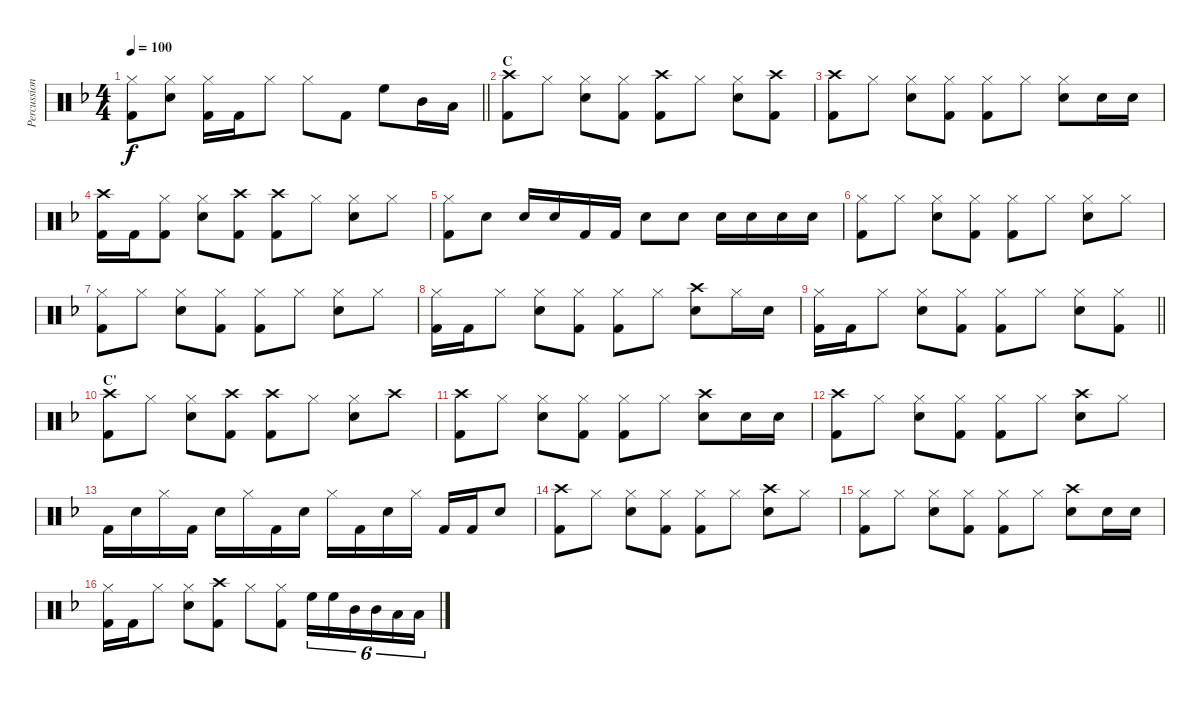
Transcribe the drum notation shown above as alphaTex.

\track ("Percussion" "Percussion") {instrument percussion}
\staff {score}
\articulation defaults
\ts (4 4)
\tempo 100
\clef neutral
\barLineRight lightlight
\ks f
("Hi-Hat (closed)" "Kick (hit) 2").8{dy f} ("Hi-Hat (closed)" "Snare (hit) 2").8 ("Hi-Hat (closed)" "Kick (hit) 2").16 "Kick (hit) 2".16 "Hi-Hat (closed)".8 "Hi-Hat (closed)".8 "Kick (hit) 2".8 "High Floor Tom (hit)".8 "Mid Tom (hit)".16 "Low Tom (hit)".16 |
\section ("" "C")
("Crash high (hit)" "Kick (hit) 2").8 "Hi-Hat (closed)".8 ("Hi-Hat (closed)" "Snare (hit) 2").8 ("Hi-Hat (closed)" "Kick (hit) 2").8 ("Crash high (hit)" "Kick (hit) 2").8 "Hi-Hat (closed)".8 ("Hi-Hat (closed)" "Snare (hit) 2").8 ("Crash high (hit)" "Kick (hit) 2").8 |
("Crash high (hit)" "Kick (hit) 2").8 "Hi-Hat (closed)".8 ("Hi-Hat (closed)" "Snare (hit) 2").8 ("Hi-Hat (closed)" "Kick (hit) 2").8 ("Hi-Hat (closed)" "Kick (hit) 2").8 "Hi-Hat (closed)".8 ("Hi-Hat (closed)" "Snare (hit) 2").8 "Snare (hit) 2".16 "Snare (hit) 2".16 |
("Crash high (hit)" "Kick (hit) 2").16 "Kick (hit) 2".16 ("Hi-Hat (closed)" "Kick (hit) 2").8 ("Hi-Hat (closed)" "Snare (hit) 2").8 ("Crash high (hit)" "Kick (hit) 2").8 ("Crash high (hit)" "Kick (hit) 2").8 "Hi-Hat (closed)".8 ("Hi-Hat (closed)" "Snare (hit) 2").8 "Hi-Hat (closed)".8 |
("Hi-Hat (closed)" "Kick (hit) 2").8 "Snare (hit) 2".8 "Snare (hit) 2".16 "Snare (hit) 2".16 "Kick (hit) 2".16 "Kick (hit) 2".16 "Snare (hit) 2".8 "Snare (hit) 2".8 "Snare (hit) 2".16 "Snare (hit) 2".16 "Snare (hit) 2".16 "Snare (hit) 2".16 |
("Hi-Hat (closed)" "Kick (hit) 2").8 "Hi-Hat (closed)".8 ("Hi-Hat (closed)" "Snare (hit) 2").8 ("Hi-Hat (closed)" "Kick (hit) 2").8 ("Hi-Hat (closed)" "Kick (hit) 2").8 "Hi-Hat (closed)".8 ("Hi-Hat (closed)" "Snare (hit) 2").8 "Hi-Hat (closed)".8 |
("Hi-Hat (closed)" "Kick (hit) 2").8 "Hi-Hat (closed)".8 ("Hi-Hat (closed)" "Snare (hit) 2").8 ("Hi-Hat (closed)" "Kick (hit) 2").8 ("Hi-Hat (closed)" "Kick (hit) 2").8 "Hi-Hat (closed)".8 ("Hi-Hat (closed)" "Snare (hit) 2").8 "Hi-Hat (closed)".8 |
("Hi-Hat (closed)" "Kick (hit) 2").16 "Kick (hit) 2".16 "Hi-Hat (closed)".8 ("Hi-Hat (closed)" "Snare (hit) 2").8 ("Hi-Hat (closed)" "Kick (hit) 2").8 ("Hi-Hat (closed)" "Kick (hit) 2").8 "Hi-Hat (closed)".8 ("Crash high (hit)" "Snare (hit) 2").8 "Hi-Hat (closed)".16 "Snare (hit) 2".16 |
\barLineRight lightlight
("Hi-Hat (closed)" "Kick (hit) 2").16 "Kick (hit) 2".16 "Hi-Hat (closed)".8 ("Hi-Hat (closed)" "Snare (hit) 2").8 ("Hi-Hat (closed)" "Kick (hit) 2").8 ("Hi-Hat (closed)" "Kick (hit) 2").8 "Hi-Hat (closed)".8 ("Hi-Hat (closed)" "Snare (hit) 2").8 ("Hi-Hat (closed)" "Kick (hit) 2").8 |
\section ("" "C'")
("Crash high (hit)" "Kick (hit) 2").8 "Hi-Hat (closed)".8 ("Hi-Hat (closed)" "Snare (hit) 2").8 ("Crash high (hit)" "Kick (hit) 2").8 ("Crash high (hit)" "Kick (hit) 2").8 "Hi-Hat (closed)".8 ("Hi-Hat (closed)" "Snare (hit) 2").8 "Crash high (hit)".8 |
("Crash high (hit)" "Kick (hit) 2").8 "Hi-Hat (closed)".8 ("Hi-Hat (closed)" "Snare (hit) 2").8 ("Hi-Hat (closed)" "Kick (hit) 2").8 ("Hi-Hat (closed)" "Kick (hit) 2").8 "Hi-Hat (closed)".8 ("Crash high (hit)" "Snare (hit) 2").8 "Snare (hit) 2".16 "Snare (hit) 2".16 |
("Crash high (hit)" "Kick (hit) 2").8 "Hi-Hat (closed)".8 ("Hi-Hat (closed)" "Snare (hit) 2").8 ("Hi-Hat (closed)" "Kick (hit) 2").8 ("Hi-Hat (closed)" "Kick (hit) 2").8 "Hi-Hat (closed)".8 ("Crash high (hit)" "Snare (hit) 2").8 "Hi-Hat (closed)".8 |
"Kick (hit) 2".16 "Snare (hit) 2".16 "Hi-Hat (closed)".16 "Kick (hit) 2".16 "Snare (hit) 2".16 "Hi-Hat (closed)".16 "Kick (hit) 2".16 "Snare (hit) 2".16 "Hi-Hat (closed)".16 "Kick (hit) 2".16 "Snare (hit) 2".16 "Hi-Hat (closed)".16 "Kick (hit) 2".16 "Kick (hit) 2".16 "Snare (hit) 2".8 |
("Crash high (hit)" "Kick (hit) 2").8 "Hi-Hat (closed)".8 ("Hi-Hat (closed)" "Snare (hit) 2").8 ("Hi-Hat (closed)" "Kick (hit) 2").8 ("Hi-Hat (closed)" "Kick (hit) 2").8 "Hi-Hat (closed)".8 ("Crash high (hit)" "Snare (hit) 2").8 "Hi-Hat (closed)".8 |
("Hi-Hat (closed)" "Kick (hit) 2").8 "Hi-Hat (closed)".8 ("Hi-Hat (closed)" "Snare (hit) 2").8 ("Hi-Hat (closed)" "Kick (hit) 2").8 ("Hi-Hat (closed)" "Kick (hit) 2").8 "Hi-Hat (closed)".8 ("Crash high (hit)" "Snare (hit) 2").8 "Snare (hit) 2".16 "Snare (hit) 2".16 |
("Hi-Hat (closed)" "Kick (hit) 2").16 "Kick (hit) 2".16 "Hi-Hat (closed)".8 ("Hi-Hat (closed)" "Snare (hit) 2").8 ("Crash high (hit)" "Kick (hit) 2").8 "Hi-Hat (closed)".8 ("Hi-Hat (closed)" "Kick (hit) 2").8 "High Floor Tom (hit)".16{tu (6 4)} "High Floor Tom (hit)".16{tu (6 4)} "Mid Tom (hit)".16{tu (6 4)} "Mid Tom (hit)".16{tu (6 4)} "Low Tom (hit)".16{tu (6 4)} "Low Tom (hit)".16{tu (6 4)}
